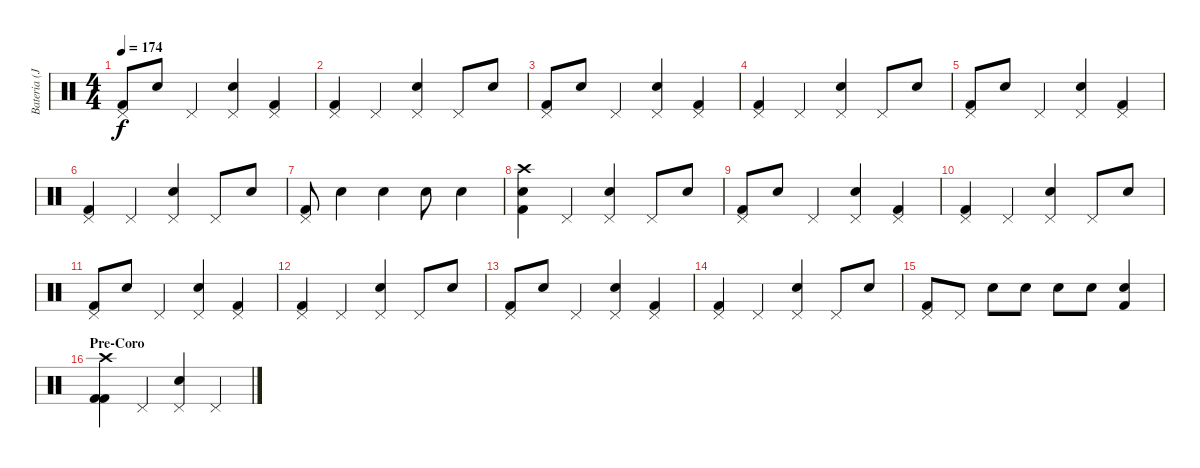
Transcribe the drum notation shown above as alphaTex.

\track ("Bateria (Jefrey Fischman)" "Bateria (J") {instrument percussion}
\staff {score}
\articulation defaults
\ts (4 4)
\tempo 174
\clef neutral
\ks c
("Pedal Hi-Hat (hit)" "Kick (hit) 2").8{dy f} "Snare (hit) 2".8 "Pedal Hi-Hat (hit)".4 ("Pedal Hi-Hat (hit)" "Snare (hit) 2").4 ("Pedal Hi-Hat (hit)" "Kick (hit) 2").4 |
("Pedal Hi-Hat (hit)" "Kick (hit) 2").4 "Pedal Hi-Hat (hit)".4 ("Pedal Hi-Hat (hit)" "Snare (hit) 2").4 "Pedal Hi-Hat (hit)".8 "Snare (hit) 2".8 |
("Pedal Hi-Hat (hit)" "Kick (hit) 2").8 "Snare (hit) 2".8 "Pedal Hi-Hat (hit)".4 ("Pedal Hi-Hat (hit)" "Snare (hit) 2").4 ("Pedal Hi-Hat (hit)" "Kick (hit) 2").4 |
("Pedal Hi-Hat (hit)" "Kick (hit) 2").4 "Pedal Hi-Hat (hit)".4 ("Pedal Hi-Hat (hit)" "Snare (hit) 2").4 "Pedal Hi-Hat (hit)".8 "Snare (hit) 2".8 |
("Pedal Hi-Hat (hit)" "Kick (hit) 2").8 "Snare (hit) 2".8 "Pedal Hi-Hat (hit)".4 ("Pedal Hi-Hat (hit)" "Snare (hit) 2").4 ("Pedal Hi-Hat (hit)" "Kick (hit) 2").4 |
("Pedal Hi-Hat (hit)" "Kick (hit) 2").4 "Pedal Hi-Hat (hit)".4 ("Pedal Hi-Hat (hit)" "Snare (hit) 2").4 "Pedal Hi-Hat (hit)".8 "Snare (hit) 2".8 |
("Pedal Hi-Hat (hit)" "Kick (hit) 2").8 "Snare (hit) 2".4 "Snare (hit) 2".4 "Snare (hit) 2".8 "Snare (hit) 2".4 |
("Crash high (hit)" "Snare (hit) 2" "Kick (hit) 2").4 "Pedal Hi-Hat (hit)".4 ("Pedal Hi-Hat (hit)" "Snare (hit) 2").4 "Pedal Hi-Hat (hit)".8 "Snare (hit) 2".8 |
("Pedal Hi-Hat (hit)" "Kick (hit) 2").8 "Snare (hit) 2".8 "Pedal Hi-Hat (hit)".4 ("Pedal Hi-Hat (hit)" "Snare (hit) 2").4 ("Pedal Hi-Hat (hit)" "Kick (hit) 2").4 |
("Pedal Hi-Hat (hit)" "Kick (hit) 2").4 "Pedal Hi-Hat (hit)".4 ("Pedal Hi-Hat (hit)" "Snare (hit) 2").4 "Pedal Hi-Hat (hit)".8 "Snare (hit) 2".8 |
("Pedal Hi-Hat (hit)" "Kick (hit) 2").8 "Snare (hit) 2".8 "Pedal Hi-Hat (hit)".4 ("Pedal Hi-Hat (hit)" "Snare (hit) 2").4 ("Pedal Hi-Hat (hit)" "Kick (hit) 2").4 |
("Pedal Hi-Hat (hit)" "Kick (hit) 2").4 "Pedal Hi-Hat (hit)".4 ("Pedal Hi-Hat (hit)" "Snare (hit) 2").4 "Pedal Hi-Hat (hit)".8 "Snare (hit) 2".8 |
("Pedal Hi-Hat (hit)" "Kick (hit) 2").8 "Snare (hit) 2".8 "Pedal Hi-Hat (hit)".4 ("Pedal Hi-Hat (hit)" "Snare (hit) 2").4 ("Pedal Hi-Hat (hit)" "Kick (hit) 2").4 |
("Pedal Hi-Hat (hit)" "Kick (hit) 2").4 "Pedal Hi-Hat (hit)".4 ("Pedal Hi-Hat (hit)" "Snare (hit) 2").4 "Pedal Hi-Hat (hit)".8 "Snare (hit) 2".8 |
("Pedal Hi-Hat (hit)" "Kick (hit) 2").8 "Pedal Hi-Hat (hit)".8 "Snare (hit) 2".8 "Snare (hit) 2".8 "Snare (hit) 2".8 "Snare (hit) 2".8 ("Kick (hit) 2" "Electric Snare (hit)").4 |
\section ("" "Pre-Coro")
("Crash high (hit)" "Kick (hit) 2" "Kick (hit) 2").4 "Pedal Hi-Hat (hit)".4 ("Pedal Hi-Hat (hit)" "Snare (hit) 2").4 "Pedal Hi-Hat (hit)".4
